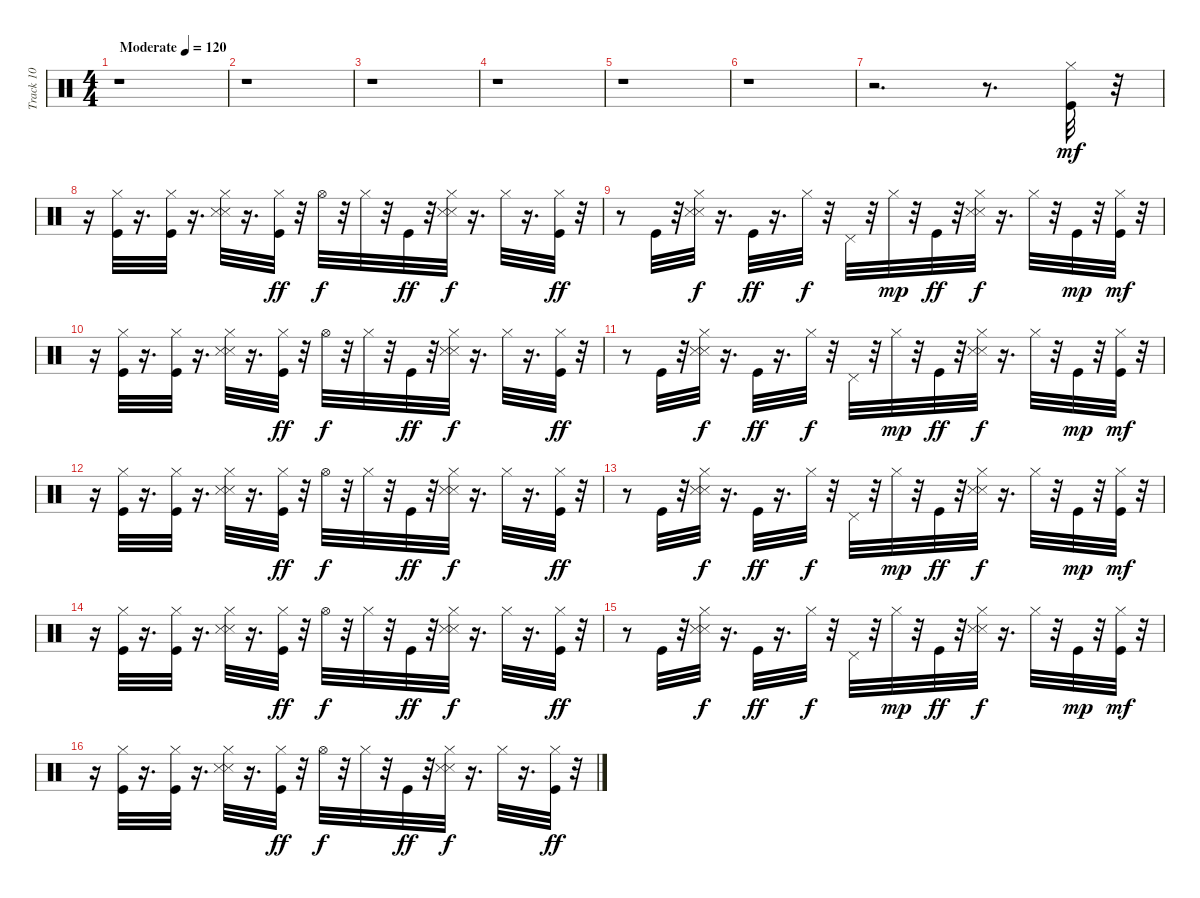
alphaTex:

\track ("Track 10" "Track 10") {instrument percussion}
\staff {score}
\articulation defaults
\ts (4 4)
\tempo (120 "Moderate")
\clef neutral
\ks c
r.1{dy mf} |
r.1 |
r.1 |
r.1 |
r.1 |
r.1 |
r.2{d} r.8{d} ("Kick (hit)" "Hi-Hat (closed)").32 r.32 |
r.16 ("Kick (hit)" "Hi-Hat (closed)").32 r.16{d} ("Kick (hit)" "Hi-Hat (closed)").32 r.16{d} ("Metronome (hit)" "Snare (side stick) 3" "Hi-Hat (closed)").32 r.16{d} ("Kick (hit)" "Hi-Hat (closed)").32{dy ff} r.32 "Hi-Hat (open)".32{dy f} r.32 "Hi-Hat (closed)".32 r.32 "Kick (hit)".32{dy ff} r.32 ("Metronome (hit)" "Snare (side stick) 3" "Hi-Hat (closed)").32{dy f} r.16{d} "Hi-Hat (closed)".32 r.16{d} ("Kick (hit)" "Hi-Hat (closed)").32{dy ff} r.32 |
r.8 "Kick (hit)".32 r.32 ("Metronome (hit)" "Snare (side stick) 3" "Hi-Hat (closed)").32{dy f} r.16{d} "Kick (hit)".32{dy ff} r.16{d} "Hi-Hat (closed)".32{dy f} r.32 "Pedal Hi-Hat (hit)".32 r.32 "Hi-Hat (closed)".32{dy mp} r.32 "Kick (hit)".32{dy ff} r.32 ("Metronome (hit)" "Snare (side stick) 3" "Hi-Hat (closed)").32{dy f} r.16{d} "Hi-Hat (closed)".32 r.32 "Kick (hit)".32{dy mp} r.32 ("Kick (hit)" "Hi-Hat (closed)").32{dy mf} r.32 |
r.16 ("Kick (hit)" "Hi-Hat (closed)").32 r.16{d} ("Kick (hit)" "Hi-Hat (closed)").32 r.16{d} ("Metronome (hit)" "Snare (side stick) 3" "Hi-Hat (closed)").32 r.16{d} ("Kick (hit)" "Hi-Hat (closed)").32{dy ff} r.32 "Hi-Hat (open)".32{dy f} r.32 "Hi-Hat (closed)".32 r.32 "Kick (hit)".32{dy ff} r.32 ("Metronome (hit)" "Snare (side stick) 3" "Hi-Hat (closed)").32{dy f} r.16{d} "Hi-Hat (closed)".32 r.16{d} ("Kick (hit)" "Hi-Hat (closed)").32{dy ff} r.32 |
r.8 "Kick (hit)".32 r.32 ("Metronome (hit)" "Snare (side stick) 3" "Hi-Hat (closed)").32{dy f} r.16{d} "Kick (hit)".32{dy ff} r.16{d} "Hi-Hat (closed)".32{dy f} r.32 "Pedal Hi-Hat (hit)".32 r.32 "Hi-Hat (closed)".32{dy mp} r.32 "Kick (hit)".32{dy ff} r.32 ("Metronome (hit)" "Snare (side stick) 3" "Hi-Hat (closed)").32{dy f} r.16{d} "Hi-Hat (closed)".32 r.32 "Kick (hit)".32{dy mp} r.32 ("Kick (hit)" "Hi-Hat (closed)").32{dy mf} r.32 |
r.16 ("Kick (hit)" "Hi-Hat (closed)").32 r.16{d} ("Kick (hit)" "Hi-Hat (closed)").32 r.16{d} ("Metronome (hit)" "Snare (side stick) 3" "Hi-Hat (closed)").32 r.16{d} ("Kick (hit)" "Hi-Hat (closed)").32{dy ff} r.32 "Hi-Hat (open)".32{dy f} r.32 "Hi-Hat (closed)".32 r.32 "Kick (hit)".32{dy ff} r.32 ("Metronome (hit)" "Snare (side stick) 3" "Hi-Hat (closed)").32{dy f} r.16{d} "Hi-Hat (closed)".32 r.16{d} ("Kick (hit)" "Hi-Hat (closed)").32{dy ff} r.32 |
r.8 "Kick (hit)".32 r.32 ("Metronome (hit)" "Snare (side stick) 3" "Hi-Hat (closed)").32{dy f} r.16{d} "Kick (hit)".32{dy ff} r.16{d} "Hi-Hat (closed)".32{dy f} r.32 "Pedal Hi-Hat (hit)".32 r.32 "Hi-Hat (closed)".32{dy mp} r.32 "Kick (hit)".32{dy ff} r.32 ("Metronome (hit)" "Snare (side stick) 3" "Hi-Hat (closed)").32{dy f} r.16{d} "Hi-Hat (closed)".32 r.32 "Kick (hit)".32{dy mp} r.32 ("Kick (hit)" "Hi-Hat (closed)").32{dy mf} r.32 |
r.16 ("Kick (hit)" "Hi-Hat (closed)").32 r.16{d} ("Kick (hit)" "Hi-Hat (closed)").32 r.16{d} ("Metronome (hit)" "Snare (side stick) 3" "Hi-Hat (closed)").32 r.16{d} ("Kick (hit)" "Hi-Hat (closed)").32{dy ff} r.32 "Hi-Hat (open)".32{dy f} r.32 "Hi-Hat (closed)".32 r.32 "Kick (hit)".32{dy ff} r.32 ("Metronome (hit)" "Snare (side stick) 3" "Hi-Hat (closed)").32{dy f} r.16{d} "Hi-Hat (closed)".32 r.16{d} ("Kick (hit)" "Hi-Hat (closed)").32{dy ff} r.32 |
r.8 "Kick (hit)".32 r.32 ("Metronome (hit)" "Snare (side stick) 3" "Hi-Hat (closed)").32{dy f} r.16{d} "Kick (hit)".32{dy ff} r.16{d} "Hi-Hat (closed)".32{dy f} r.32 "Pedal Hi-Hat (hit)".32 r.32 "Hi-Hat (closed)".32{dy mp} r.32 "Kick (hit)".32{dy ff} r.32 ("Metronome (hit)" "Snare (side stick) 3" "Hi-Hat (closed)").32{dy f} r.16{d} "Hi-Hat (closed)".32 r.32 "Kick (hit)".32{dy mp} r.32 ("Kick (hit)" "Hi-Hat (closed)").32{dy mf} r.32 |
r.16 ("Kick (hit)" "Hi-Hat (closed)").32 r.16{d} ("Kick (hit)" "Hi-Hat (closed)").32 r.16{d} ("Metronome (hit)" "Snare (side stick) 3" "Hi-Hat (closed)").32 r.16{d} ("Kick (hit)" "Hi-Hat (closed)").32{dy ff} r.32 "Hi-Hat (open)".32{dy f} r.32 "Hi-Hat (closed)".32 r.32 "Kick (hit)".32{dy ff} r.32 ("Metronome (hit)" "Snare (side stick) 3" "Hi-Hat (closed)").32{dy f} r.16{d} "Hi-Hat (closed)".32 r.16{d} ("Kick (hit)" "Hi-Hat (closed)").32{dy ff} r.32
